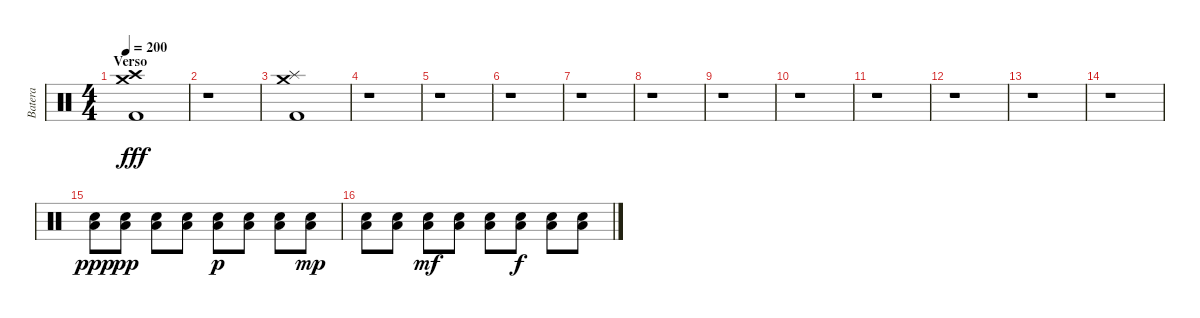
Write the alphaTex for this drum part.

\track ("Batera" "Batera") {instrument percussion}
\staff {score}
\articulation defaults
\ts (4 4)
\section ("" "Verso")
\tempo 200
\clef neutral
\ks c
("Crash high (hit)" "Crash medium (hit)" "Kick (hit) 2").1{dy fff} |
r.1 |
("Crash medium (hit)" "Splash (hit)" "Kick (hit) 2").1 |
r.1 |
r.1 |
r.1 |
r.1 |
r.1 |
r.1 |
r.1 |
r.1 |
r.1 |
r.1 |
r.1 |
("Electric Snare (hit)" "Low Tom (hit)").8{dy ppp} ("Electric Snare (hit)" "Low Tom (hit)").8{dy pp} ("Electric Snare (hit)" "Low Tom (hit)").8 ("Electric Snare (hit)" "Low Tom (hit)").8 ("Electric Snare (hit)" "Low Tom (hit)").8{dy p} ("Electric Snare (hit)" "Low Tom (hit)").8 ("Electric Snare (hit)" "Low Tom (hit)").8 ("Electric Snare (hit)" "Low Tom (hit)").8{dy mp} |
("Electric Snare (hit)" "Low Tom (hit)").8 ("Electric Snare (hit)" "Low Tom (hit)").8 ("Electric Snare (hit)" "Low Tom (hit)").8{dy mf} ("Electric Snare (hit)" "Low Tom (hit)").8 ("Electric Snare (hit)" "Low Tom (hit)").8 ("Electric Snare (hit)" "Low Tom (hit)").8{dy f} ("Electric Snare (hit)" "Low Tom (hit)").8 ("Electric Snare (hit)" "Low Tom (hit)").8
